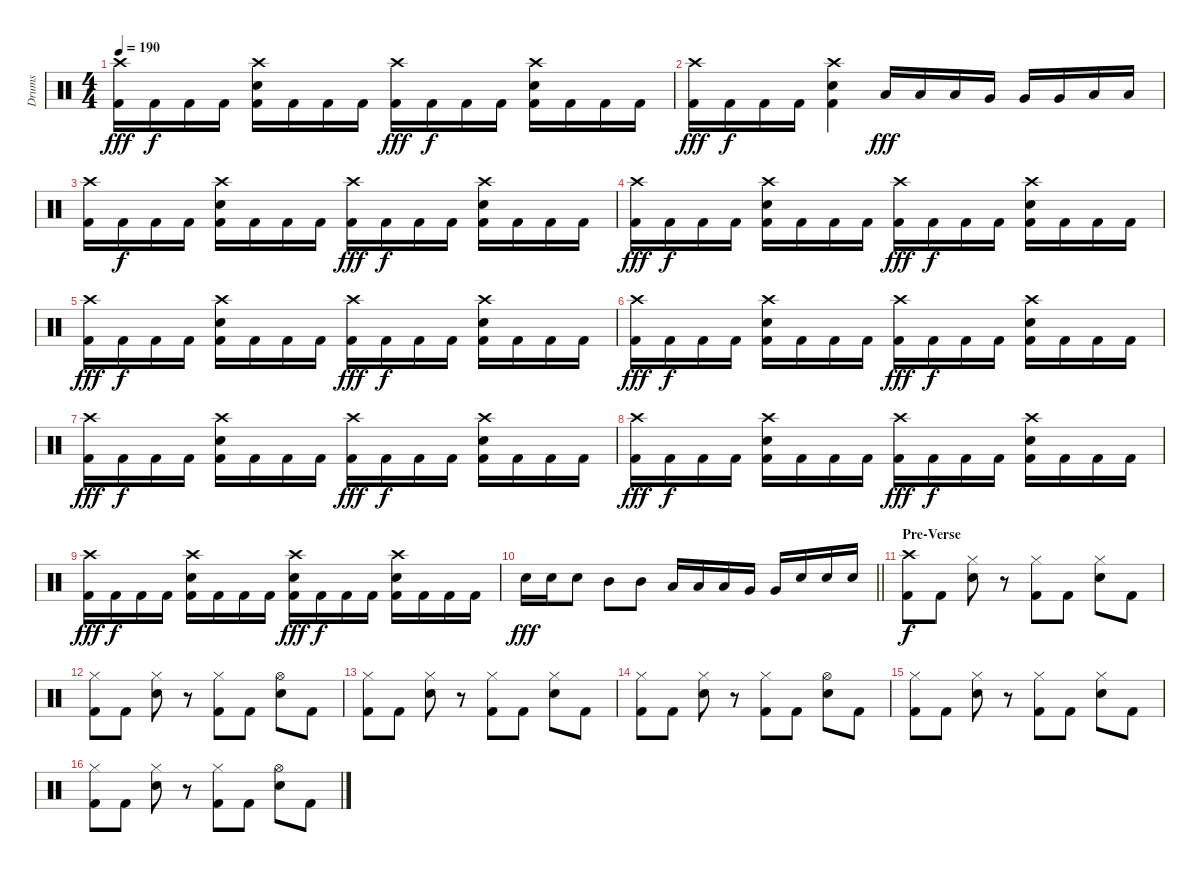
\track ("Drums" "Drums") {instrument percussion}
\staff {score}
\articulation defaults
\ts (4 4)
\tempo 190
\clef neutral
\ks c
("Crash high (hit)" "Kick (hit) 2").16{dy fff} "Kick (hit) 2".16{dy f} "Kick (hit) 2".16 "Kick (hit) 2".16 ("Crash high (hit)" "Electric Snare (hit)" "Kick (hit) 2").16 "Kick (hit) 2".16 "Kick (hit) 2".16 "Kick (hit) 2".16 ("Crash high (hit)" "Kick (hit) 2").16{dy fff} "Kick (hit) 2".16{dy f} "Kick (hit) 2".16 "Kick (hit) 2".16 ("Crash high (hit)" "Electric Snare (hit)" "Kick (hit) 2").16 "Kick (hit) 2".16 "Kick (hit) 2".16 "Kick (hit) 2".16 |
("Crash high (hit)" "Kick (hit) 2").16{dy fff} "Kick (hit) 2".16{dy f} "Kick (hit) 2".16 "Kick (hit) 2".16 ("Crash high (hit)" "Electric Snare (hit)" "Kick (hit) 2").4 "Low Tom (hit)".16{dy fff} "Low Tom (hit)".16 "Low Tom (hit)".16 "Very Low Tom (hit)".16 "Very Low Tom (hit)".16 "Very Low Tom (hit)".16 "Low Floor Tom (hit)".16 "Low Floor Tom (hit)".16 |
("Crash high (hit)" "Kick (hit) 2").16 "Kick (hit) 2".16{dy f} "Kick (hit) 2".16 "Kick (hit) 2".16 ("Crash high (hit)" "Electric Snare (hit)" "Kick (hit) 2").16 "Kick (hit) 2".16 "Kick (hit) 2".16 "Kick (hit) 2".16 ("Crash high (hit)" "Kick (hit) 2").16{dy fff} "Kick (hit) 2".16{dy f} "Kick (hit) 2".16 "Kick (hit) 2".16 ("Crash high (hit)" "Electric Snare (hit)" "Kick (hit) 2").16 "Kick (hit) 2".16 "Kick (hit) 2".16 "Kick (hit) 2".16 |
("Crash high (hit)" "Kick (hit) 2").16{dy fff} "Kick (hit) 2".16{dy f} "Kick (hit) 2".16 "Kick (hit) 2".16 ("Crash high (hit)" "Electric Snare (hit)" "Kick (hit) 2").16 "Kick (hit) 2".16 "Kick (hit) 2".16 "Kick (hit) 2".16 ("Crash high (hit)" "Kick (hit) 2").16{dy fff} "Kick (hit) 2".16{dy f} "Kick (hit) 2".16 "Kick (hit) 2".16 ("Crash high (hit)" "Electric Snare (hit)" "Kick (hit) 2").16 "Kick (hit) 2".16 "Kick (hit) 2".16 "Kick (hit) 2".16 |
("Crash high (hit)" "Kick (hit) 2").16{dy fff} "Kick (hit) 2".16{dy f} "Kick (hit) 2".16 "Kick (hit) 2".16 ("Crash high (hit)" "Electric Snare (hit)" "Kick (hit) 2").16 "Kick (hit) 2".16 "Kick (hit) 2".16 "Kick (hit) 2".16 ("Crash high (hit)" "Kick (hit) 2").16{dy fff} "Kick (hit) 2".16{dy f} "Kick (hit) 2".16 "Kick (hit) 2".16 ("Crash high (hit)" "Electric Snare (hit)" "Kick (hit) 2").16 "Kick (hit) 2".16 "Kick (hit) 2".16 "Kick (hit) 2".16 |
("Crash high (hit)" "Kick (hit) 2").16{dy fff} "Kick (hit) 2".16{dy f} "Kick (hit) 2".16 "Kick (hit) 2".16 ("Crash high (hit)" "Electric Snare (hit)" "Kick (hit) 2").16 "Kick (hit) 2".16 "Kick (hit) 2".16 "Kick (hit) 2".16 ("Crash high (hit)" "Kick (hit) 2").16{dy fff} "Kick (hit) 2".16{dy f} "Kick (hit) 2".16 "Kick (hit) 2".16 ("Crash high (hit)" "Electric Snare (hit)" "Kick (hit) 2").16 "Kick (hit) 2".16 "Kick (hit) 2".16 "Kick (hit) 2".16 |
("Crash high (hit)" "Kick (hit) 2").16{dy fff} "Kick (hit) 2".16{dy f} "Kick (hit) 2".16 "Kick (hit) 2".16 ("Crash high (hit)" "Electric Snare (hit)" "Kick (hit) 2").16 "Kick (hit) 2".16 "Kick (hit) 2".16 "Kick (hit) 2".16 ("Crash high (hit)" "Kick (hit) 2").16{dy fff} "Kick (hit) 2".16{dy f} "Kick (hit) 2".16 "Kick (hit) 2".16 ("Crash high (hit)" "Electric Snare (hit)" "Kick (hit) 2").16 "Kick (hit) 2".16 "Kick (hit) 2".16 "Kick (hit) 2".16 |
("Crash high (hit)" "Kick (hit) 2").16{dy fff} "Kick (hit) 2".16{dy f} "Kick (hit) 2".16 "Kick (hit) 2".16 ("Crash high (hit)" "Electric Snare (hit)" "Kick (hit) 2").16 "Kick (hit) 2".16 "Kick (hit) 2".16 "Kick (hit) 2".16 ("Crash high (hit)" "Kick (hit) 2").16{dy fff} "Kick (hit) 2".16{dy f} "Kick (hit) 2".16 "Kick (hit) 2".16 ("Crash high (hit)" "Electric Snare (hit)" "Kick (hit) 2").16 "Kick (hit) 2".16 "Kick (hit) 2".16 "Kick (hit) 2".16 |
("Crash high (hit)" "Kick (hit) 2").16{dy fff} "Kick (hit) 2".16{dy f} "Kick (hit) 2".16 "Kick (hit) 2".16 ("Crash high (hit)" "Electric Snare (hit)" "Kick (hit) 2").16 "Kick (hit) 2".16 "Kick (hit) 2".16 "Kick (hit) 2".16 ("Crash high (hit)" "Electric Snare (hit)" "Kick (hit) 2").16{dy fff} "Kick (hit) 2".16{dy f} "Kick (hit) 2".16 "Kick (hit) 2".16 ("Crash high (hit)" "Electric Snare (hit)" "Kick (hit) 2").16 "Kick (hit) 2".16 "Kick (hit) 2".16 "Kick (hit) 2".16 |
\barLineRight lightlight "Electric Snare (hit)".16{dy fff} "Electric Snare (hit)".16 "Electric Snare (hit)".8 "Mid Tom (hit)".8 "Mid Tom (hit)".8 "Low Tom (hit)".16 "Low Tom (hit)".16 "Low Tom (hit)".16 "Very Low Tom (hit)".16 "Very Low Tom (hit)".16 "Electric Snare (hit)".16 "Electric Snare (hit)".16 "Electric Snare (hit)".16
|
\section ("" "Pre-Verse")
("Crash high (hit)" "Kick (hit) 2").8{dy f} "Kick (hit) 2".8 ("Hi-Hat (closed)" "Electric Snare (hit)").8 r.8 ("Hi-Hat (closed)" "Kick (hit) 2").8 "Kick (hit) 2".8 ("Hi-Hat (closed)" "Electric Snare (hit)").8 "Kick (hit) 2".8 |
("Hi-Hat (closed)" "Kick (hit) 2").8 "Kick (hit) 2".8 ("Hi-Hat (closed)" "Electric Snare (hit)").8 r.8 ("Hi-Hat (closed)" "Kick (hit) 2").8 "Kick (hit) 2".8 ("Hi-Hat (open)" "Electric Snare (hit)").8 "Kick (hit) 2".8 |
("Hi-Hat (closed)" "Kick (hit) 2").8 "Kick (hit) 2".8 ("Hi-Hat (closed)" "Electric Snare (hit)").8 r.8 ("Hi-Hat (closed)" "Kick (hit) 2").8 "Kick (hit) 2".8 ("Hi-Hat (closed)" "Electric Snare (hit)").8 "Kick (hit) 2".8 |
("Hi-Hat (closed)" "Kick (hit) 2").8 "Kick (hit) 2".8 ("Hi-Hat (closed)" "Electric Snare (hit)").8 r.8 ("Hi-Hat (closed)" "Kick (hit) 2").8 "Kick (hit) 2".8 ("Hi-Hat (open)" "Electric Snare (hit)").8 "Kick (hit) 2".8 |
("Hi-Hat (closed)" "Kick (hit) 2").8 "Kick (hit) 2".8 ("Hi-Hat (closed)" "Electric Snare (hit)").8 r.8 ("Hi-Hat (closed)" "Kick (hit) 2").8 "Kick (hit) 2".8 ("Hi-Hat (closed)" "Electric Snare (hit)").8 "Kick (hit) 2".8 |
("Hi-Hat (closed)" "Kick (hit) 2").8 "Kick (hit) 2".8 ("Hi-Hat (closed)" "Electric Snare (hit)").8 r.8 ("Hi-Hat (closed)" "Kick (hit) 2").8 "Kick (hit) 2".8 ("Hi-Hat (open)" "Electric Snare (hit)").8 "Kick (hit) 2".8
